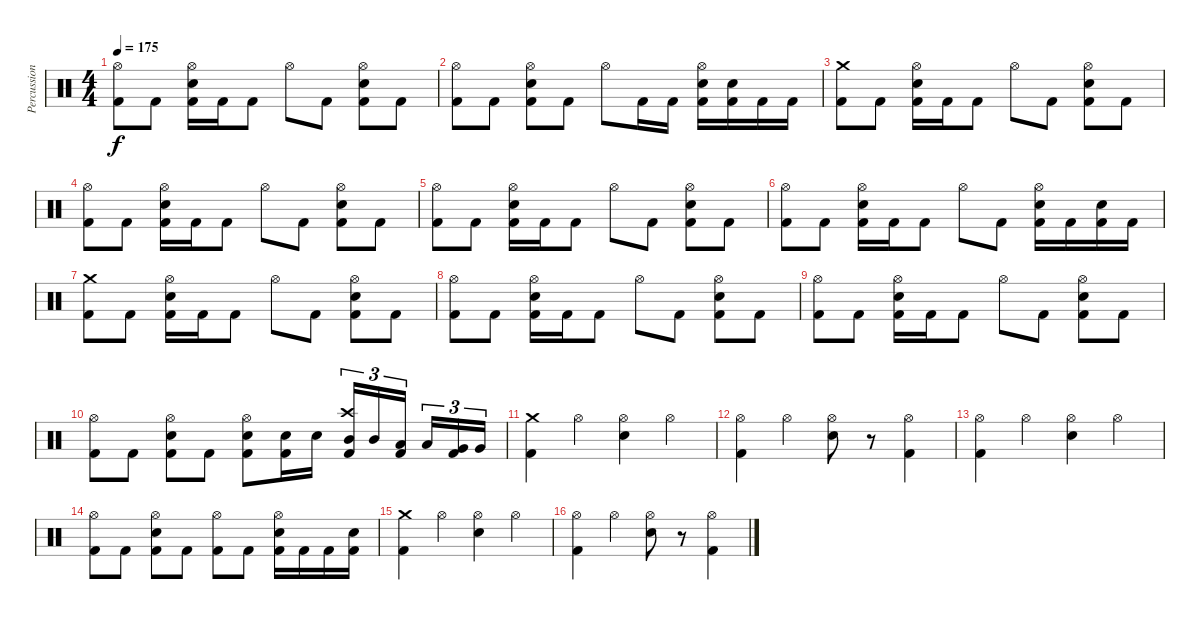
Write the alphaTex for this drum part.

\track ("Percussion" "Percussion") {instrument percussion}
\staff {score}
\articulation defaults
\ts (4 4)
\tempo 175
\clef neutral
\ks c
("Hi-Hat (open)" "Kick (hit) 2").8{dy f} "Kick (hit) 2".8 ("Kick (hit) 2" "Hi-Hat (open)" "Snare (hit) 2").16 "Kick (hit) 2".16 "Kick (hit) 2".8 "Hi-Hat (open)".8 "Kick (hit) 2".8 ("Kick (hit) 2" "Hi-Hat (open)" "Snare (hit) 2").8 "Kick (hit) 2".8 |
("Hi-Hat (open)" "Kick (hit) 2").8 "Kick (hit) 2".8 ("Kick (hit) 2" "Hi-Hat (open)" "Snare (hit) 2").8 "Kick (hit) 2".8 "Hi-Hat (open)".8 "Kick (hit) 2".16 "Kick (hit) 2".16 ("Kick (hit) 2" "Hi-Hat (open)" "Snare (hit) 2").16 ("Kick (hit) 2" "Snare (hit) 2").16 "Kick (hit) 2".16 "Kick (hit) 2".16 |
("Crash medium (hit)" "Kick (hit) 2").8 "Kick (hit) 2".8 ("Kick (hit) 2" "Hi-Hat (open)" "Snare (hit) 2").16 "Kick (hit) 2".16 "Kick (hit) 2".8 "Hi-Hat (open)".8 "Kick (hit) 2".8 ("Kick (hit) 2" "Hi-Hat (open)" "Snare (hit) 2").8 "Kick (hit) 2".8 |
("Hi-Hat (open)" "Kick (hit) 2").8 "Kick (hit) 2".8 ("Kick (hit) 2" "Hi-Hat (open)" "Snare (hit) 2").16 "Kick (hit) 2".16 "Kick (hit) 2".8 "Hi-Hat (open)".8 "Kick (hit) 2".8 ("Kick (hit) 2" "Hi-Hat (open)" "Snare (hit) 2").8 "Kick (hit) 2".8 |
("Hi-Hat (open)" "Kick (hit) 2").8 "Kick (hit) 2".8 ("Kick (hit) 2" "Hi-Hat (open)" "Snare (hit) 2").16 "Kick (hit) 2".16 "Kick (hit) 2".8 "Hi-Hat (open)".8 "Kick (hit) 2".8 ("Kick (hit) 2" "Hi-Hat (open)" "Snare (hit) 2").8 "Kick (hit) 2".8 |
("Hi-Hat (open)" "Kick (hit) 2").8 "Kick (hit) 2".8 ("Kick (hit) 2" "Hi-Hat (open)" "Snare (hit) 2").16 "Kick (hit) 2".16 "Kick (hit) 2".8 "Hi-Hat (open)".8 "Kick (hit) 2".8 ("Kick (hit) 2" "Hi-Hat (open)" "Snare (hit) 2").16 "Kick (hit) 2".16 ("Kick (hit) 2" "Snare (hit) 2").16 "Kick (hit) 2".16 |
("Crash medium (hit)" "Kick (hit) 2").8 "Kick (hit) 2".8 ("Kick (hit) 2" "Hi-Hat (open)" "Snare (hit) 2").16 "Kick (hit) 2".16 "Kick (hit) 2".8 "Hi-Hat (open)".8 "Kick (hit) 2".8 ("Kick (hit) 2" "Hi-Hat (open)" "Snare (hit) 2").8 "Kick (hit) 2".8 |
("Hi-Hat (open)" "Kick (hit) 2").8 "Kick (hit) 2".8 ("Kick (hit) 2" "Hi-Hat (open)" "Snare (hit) 2").16 "Kick (hit) 2".16 "Kick (hit) 2".8 "Hi-Hat (open)".8 "Kick (hit) 2".8 ("Kick (hit) 2" "Hi-Hat (open)" "Snare (hit) 2").8 "Kick (hit) 2".8 |
("Hi-Hat (open)" "Kick (hit) 2").8 "Kick (hit) 2".8 ("Kick (hit) 2" "Hi-Hat (open)" "Snare (hit) 2").16 "Kick (hit) 2".16 "Kick (hit) 2".8 "Hi-Hat (open)".8 "Kick (hit) 2".8 ("Kick (hit) 2" "Hi-Hat (open)" "Snare (hit) 2").8 "Kick (hit) 2".8 |
("Hi-Hat (open)" "Kick (hit) 2").8 "Kick (hit) 2".8 ("Kick (hit) 2" "Hi-Hat (open)" "Snare (hit) 2").8 "Kick (hit) 2".8 ("Kick (hit) 2" "Hi-Hat (open)" "Snare (hit) 2").8 ("Kick (hit) 2" "Snare (hit) 2").16 "Snare (hit) 2".16 ("Kick (hit) 2" "Crash high (hit)" "Mid Tom (hit)").16{tu (3 2)} "Mid Tom (hit)".16{tu (3 2)} ("Kick (hit) 2" "Low Tom (hit)").16{tu (3 2)} "Low Tom (hit)".16{tu (3 2)} ("Kick (hit) 2" "Very Low Tom (hit)").16{tu (3 2)} "Very Low Tom (hit)".16{tu (3 2)} |
("Crash medium (hit)" "Kick (hit) 2").4 "Hi-Hat (open)".4 ("Hi-Hat (open)" "Snare (hit) 2").4 "Hi-Hat (open)".4 |
("Hi-Hat (open)" "Kick (hit) 2").4 "Hi-Hat (open)".4 ("Hi-Hat (open)" "Snare (hit) 2").8 r.8 ("Hi-Hat (open)" "Kick (hit) 2").4 |
("Hi-Hat (open)" "Kick (hit) 2").4 "Hi-Hat (open)".4 ("Hi-Hat (open)" "Snare (hit) 2").4 "Hi-Hat (open)".4 |
("Hi-Hat (open)" "Kick (hit) 2").8 "Kick (hit) 2".8 ("Kick (hit) 2" "Hi-Hat (open)" "Snare (hit) 2").8 "Kick (hit) 2".8 ("Hi-Hat (open)" "Kick (hit) 2").8 "Kick (hit) 2".8 ("Kick (hit) 2" "Hi-Hat (open)" "Snare (hit) 2").16 "Kick (hit) 2".16 "Kick (hit) 2".16 ("Kick (hit) 2" "Snare (hit) 2").16 |
("Crash medium (hit)" "Kick (hit) 2").4 "Hi-Hat (open)".4 ("Hi-Hat (open)" "Snare (hit) 2").4 "Hi-Hat (open)".4 |
("Hi-Hat (open)" "Kick (hit) 2").4 "Hi-Hat (open)".4 ("Hi-Hat (open)" "Snare (hit) 2").8 r.8 ("Hi-Hat (open)" "Kick (hit) 2").4
